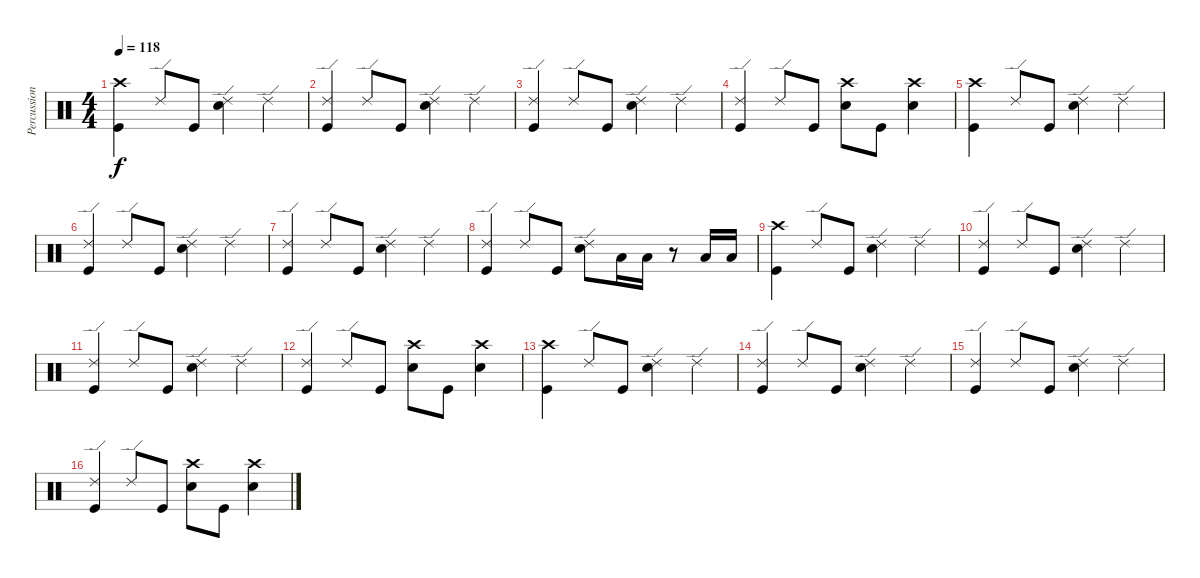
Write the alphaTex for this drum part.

\track ("Percussion" "Percussion") {instrument percussion}
\staff {score}
\articulation defaults
\ts (4 4)
\tempo 118
\clef neutral
\ks c
("Crash high (hit)" "Kick (hit)").4{dy f} "Ride (edge) 2".8 "Kick (hit)".8 ("Ride (edge) 2" "Electric Snare (hit)").4 "Ride (edge) 2".4 |
("Ride (edge) 2" "Kick (hit)").4 "Ride (edge) 2".8 "Kick (hit)".8 ("Ride (edge) 2" "Electric Snare (hit)").4 "Ride (edge) 2".4 |
("Ride (edge) 2" "Kick (hit)").4 "Ride (edge) 2".8 "Kick (hit)".8 ("Ride (edge) 2" "Electric Snare (hit)").4 "Ride (edge) 2".4 |
("Ride (edge) 2" "Kick (hit)").4 "Ride (edge) 2".8 "Kick (hit)".8 ("Crash high (hit)" "Electric Snare (hit)").8 "Kick (hit)".8 ("Crash high (hit)" "Electric Snare (hit)").4 |
("Crash high (hit)" "Kick (hit)").4 "Ride (edge) 2".8 "Kick (hit)".8 ("Ride (edge) 2" "Electric Snare (hit)").4 "Ride (edge) 2".4 |
("Ride (edge) 2" "Kick (hit)").4 "Ride (edge) 2".8 "Kick (hit)".8 ("Ride (edge) 2" "Electric Snare (hit)").4 "Ride (edge) 2".4 |
("Ride (edge) 2" "Kick (hit)").4 "Ride (edge) 2".8 "Kick (hit)".8 ("Ride (edge) 2" "Electric Snare (hit)").4 "Ride (edge) 2".4 |
("Ride (edge) 2" "Kick (hit)").4 "Ride (edge) 2".8 "Kick (hit)".8 ("Ride (edge) 2" "Electric Snare (hit)").8 "Low Tom (hit)".16 "Low Tom (hit)".16 r.8 "Low Floor Tom (hit)".16 "Low Floor Tom (hit)".16 |
("Crash high (hit)" "Kick (hit)").4 "Ride (edge) 2".8 "Kick (hit)".8 ("Ride (edge) 2" "Electric Snare (hit)").4 "Ride (edge) 2".4 |
("Ride (edge) 2" "Kick (hit)").4 "Ride (edge) 2".8 "Kick (hit)".8 ("Ride (edge) 2" "Electric Snare (hit)").4 "Ride (edge) 2".4 |
("Ride (edge) 2" "Kick (hit)").4 "Ride (edge) 2".8 "Kick (hit)".8 ("Ride (edge) 2" "Electric Snare (hit)").4 "Ride (edge) 2".4 |
("Ride (edge) 2" "Kick (hit)").4 "Ride (edge) 2".8 "Kick (hit)".8 ("Crash high (hit)" "Electric Snare (hit)").8 "Kick (hit)".8 ("Crash high (hit)" "Electric Snare (hit)").4 |
("Crash high (hit)" "Kick (hit)").4 "Ride (edge) 2".8 "Kick (hit)".8 ("Ride (edge) 2" "Electric Snare (hit)").4 "Ride (edge) 2".4 |
("Ride (edge) 2" "Kick (hit)").4 "Ride (edge) 2".8 "Kick (hit)".8 ("Ride (edge) 2" "Electric Snare (hit)").4 "Ride (edge) 2".4 |
("Ride (edge) 2" "Kick (hit)").4 "Ride (edge) 2".8 "Kick (hit)".8 ("Ride (edge) 2" "Electric Snare (hit)").4 "Ride (edge) 2".4 |
("Ride (edge) 2" "Kick (hit)").4 "Ride (edge) 2".8 "Kick (hit)".8 ("Crash high (hit)" "Electric Snare (hit)").8 "Kick (hit)".8 ("Crash high (hit)" "Electric Snare (hit)").4
